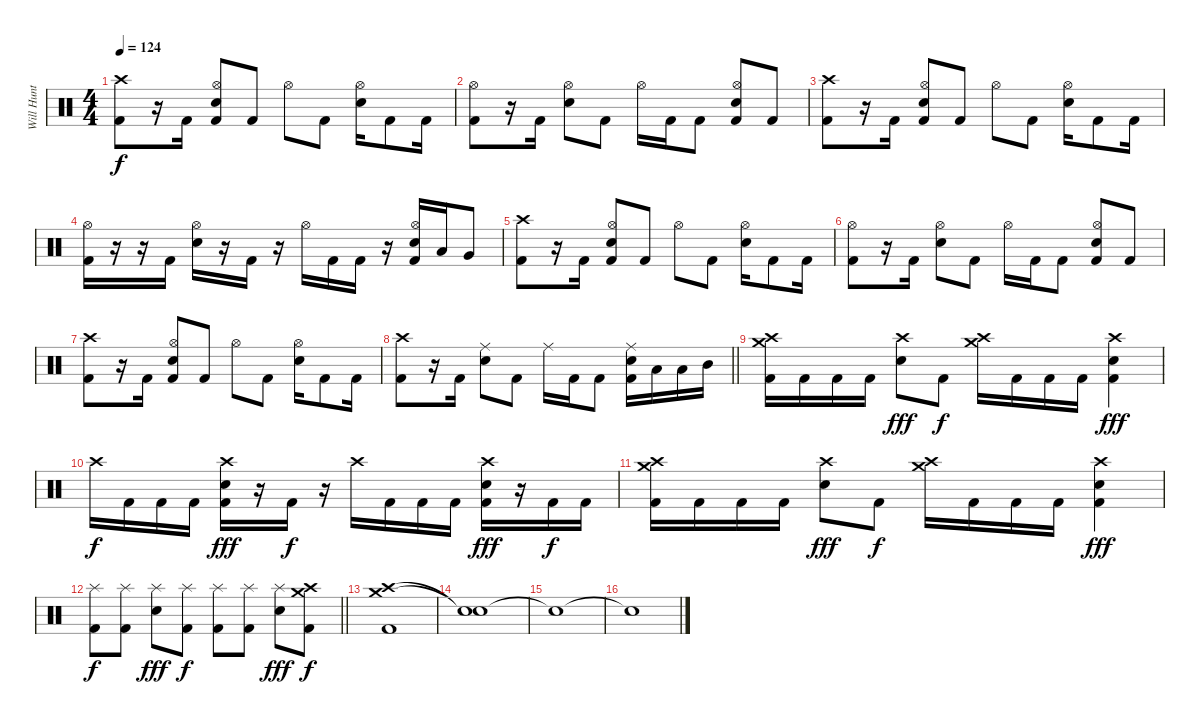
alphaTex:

\track ("Will Hunt - drums" "Will Hunt ") {instrument percussion}
\staff {score}
\articulation defaults
\ts (4 4)
\tempo 124
\clef neutral
\ks c
("Crash high (hit)" "Kick (hit) 2").8{dy f} r.16 "Kick (hit) 2".16 ("Hi-Hat (open)" "Snare (hit) 2" "Kick (hit) 2").8 "Kick (hit) 2".8 "Hi-Hat (open)".8 "Kick (hit) 2".8 ("Hi-Hat (open)" "Snare (hit) 2").16 "Kick (hit) 2".8 "Kick (hit) 2".16 |
("Hi-Hat (open)" "Kick (hit) 2").8 r.16 "Kick (hit) 2".16 ("Hi-Hat (open)" "Snare (hit) 2").8 "Kick (hit) 2".8 "Hi-Hat (open)".16 "Kick (hit) 2".16 "Kick (hit) 2".8 ("Hi-Hat (open)" "Snare (hit) 2" "Kick (hit) 2").8 "Kick (hit) 2".8 |
("Crash high (hit)" "Kick (hit) 2").8 r.16 "Kick (hit) 2".16 ("Hi-Hat (open)" "Snare (hit) 2" "Kick (hit) 2").8 "Kick (hit) 2".8 "Hi-Hat (open)".8 "Kick (hit) 2".8 ("Hi-Hat (open)" "Snare (hit) 2").16 "Kick (hit) 2".8 "Kick (hit) 2".16 |
("Hi-Hat (open)" "Kick (hit) 2").16 r.16 r.16 "Kick (hit) 2".16 ("Hi-Hat (open)" "Snare (hit) 2").16 r.16 "Kick (hit) 2".16 r.16 "Hi-Hat (open)".16 "Kick (hit) 2".16 "Kick (hit) 2".16 r.16 ("Hi-Hat (open)" "Snare (hit) 2" "Kick (hit) 2").16 "Low Tom (hit)".16 "Very Low Tom (hit)".8 |
("Crash high (hit)" "Kick (hit) 2").8 r.16 "Kick (hit) 2".16 ("Hi-Hat (open)" "Snare (hit) 2" "Kick (hit) 2").8 "Kick (hit) 2".8 "Hi-Hat (open)".8 "Kick (hit) 2".8 ("Hi-Hat (open)" "Snare (hit) 2").16 "Kick (hit) 2".8 "Kick (hit) 2".16 |
("Hi-Hat (open)" "Kick (hit) 2").8 r.16 "Kick (hit) 2".16 ("Hi-Hat (open)" "Snare (hit) 2").8 "Kick (hit) 2".8 "Hi-Hat (open)".16 "Kick (hit) 2".16 "Kick (hit) 2".8 ("Hi-Hat (open)" "Snare (hit) 2" "Kick (hit) 2").8 "Kick (hit) 2".8 |
("Crash high (hit)" "Kick (hit) 2").8 r.16 "Kick (hit) 2".16 ("Hi-Hat (open)" "Snare (hit) 2" "Kick (hit) 2").8 "Kick (hit) 2".8 "Hi-Hat (open)".8 "Kick (hit) 2".8 ("Hi-Hat (open)" "Snare (hit) 2").16 "Kick (hit) 2".8 "Kick (hit) 2".16 |
\barLineRight lightlight
("Crash high (hit)" "Kick (hit) 2").8 r.16 "Kick (hit) 2".16 ("Ride (middle)" "Snare (hit) 2").8 "Kick (hit) 2".8 "Ride (middle)".16 "Kick (hit) 2".16 "Kick (hit) 2".8 ("Ride (middle)" "Snare (hit) 2" "Kick (hit) 2").16 "Low Tom (hit)".16 "Low Tom (hit)".16 "Mid Tom (hit)".16 |
\section ("" "")
("Crash high (hit)" "Crash medium (hit)" "Kick (hit) 2").16 "Kick (hit) 2".16 "Kick (hit) 2".16 "Kick (hit) 2".16 ("Crash high (hit)" "Snare (hit) 2").8{dy fff} "Kick (hit) 2".8{dy f} ("Crash high (hit)" "Crash medium (hit)").16 "Kick (hit) 2".16 "Kick (hit) 2".16 "Kick (hit) 2".16 ("Crash high (hit)" "Snare (hit) 2" "Kick (hit) 2").4{dy fff} |
"Crash high (hit)".16{dy f} "Kick (hit) 2".16 "Kick (hit) 2".16 "Kick (hit) 2".16 ("Crash high (hit)" "Snare (hit) 2" "Kick (hit) 2").16{dy fff} r.16 "Kick (hit) 2".16{dy f} r.16 "Crash high (hit)".16 "Kick (hit) 2".16 "Kick (hit) 2".16 "Kick (hit) 2".16 ("Crash high (hit)" "Snare (hit) 2" "Kick (hit) 2").16{dy fff} r.16 "Kick (hit) 2".16{dy f} "Kick (hit) 2".16 |
("Crash high (hit)" "Crash medium (hit)" "Kick (hit) 2").16 "Kick (hit) 2".16 "Kick (hit) 2".16 "Kick (hit) 2".16 ("Crash high (hit)" "Snare (hit) 2").8{dy fff} "Kick (hit) 2".8{dy f} ("Crash high (hit)" "Crash medium (hit)").16 "Kick (hit) 2".16 "Kick (hit) 2".16 "Kick (hit) 2".16 ("Crash high (hit)" "Snare (hit) 2" "Kick (hit) 2").4{dy fff} |
\barLineRight lightlight
("Splash (hit)" "Kick (hit) 2").8{dy f} ("Splash (hit)" "Kick (hit) 2").8 ("Splash (hit)" "Snare (hit) 2").8{dy fff} ("Splash (hit)" "Kick (hit) 2").8{dy f} ("Splash (hit)" "Kick (hit) 2").8 ("Splash (hit)" "Kick (hit) 2").8 ("Splash (hit)" "Snare (hit) 2").8{dy fff} ("Crash high (hit)" "Crash medium (hit)" "Kick (hit) 2").8{dy f} |
("Crash high (hit)" "Crash medium (hit)" "Kick (hit) 2").1 |
("Snare (hit)"{t} "Snare (hit)"{t}).1 |
"Snare (hit)"{t}.1 |
"Snare (hit)"{t}.1
